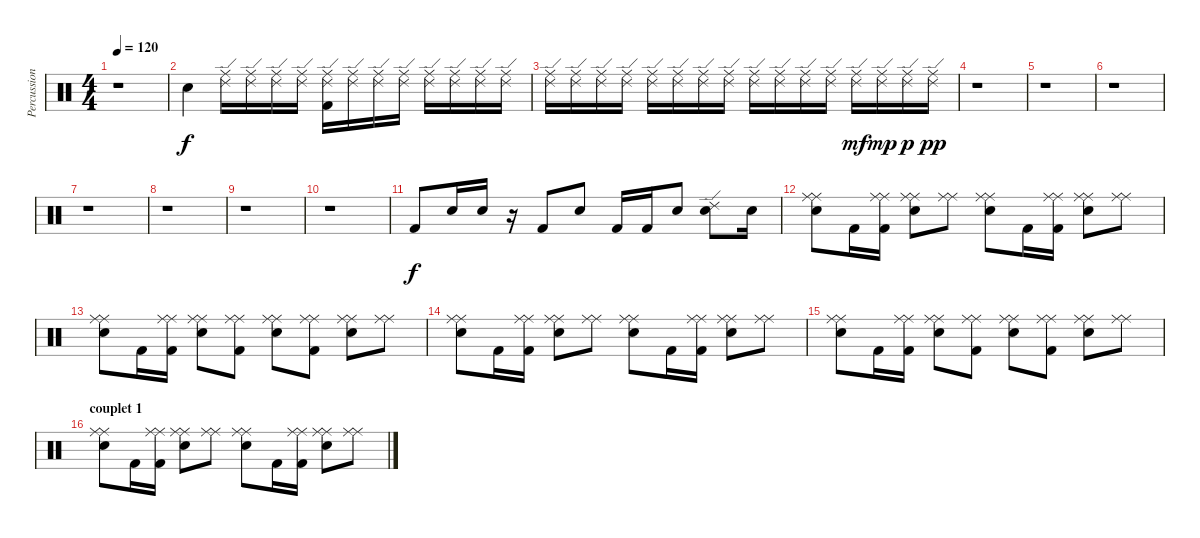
\track ("Percussions" "Percussion") {instrument percussion}
\staff {score}
\articulation defaults
\ts (4 4)
\tempo 120
\clef neutral
\ks c
r.1{dy f} |
"Electric Snare (hit)".4 ("Ride (middle)" "Ride (edge) 2").16 ("Ride (middle)" "Ride (edge) 2").16 ("Ride (middle)" "Ride (edge) 2").16 ("Ride (middle)" "Ride (edge) 2").16 ("Ride (middle)" "Ride (edge) 2" "Kick (hit) 2").16 ("Ride (middle)" "Ride (edge) 2").16 ("Ride (middle)" "Ride (edge) 2").16 ("Ride (middle)" "Ride (edge) 2").16 ("Ride (middle)" "Ride (edge) 2").16 ("Ride (middle)" "Ride (edge) 2").16 ("Ride (middle)" "Ride (edge) 2").16 ("Ride (middle)" "Ride (edge) 2").16 |
("Ride (middle)" "Ride (edge) 2").16 ("Ride (middle)" "Ride (edge) 2").16 ("Ride (middle)" "Ride (edge) 2").16 ("Ride (middle)" "Ride (edge) 2").16 ("Ride (middle)" "Ride (edge) 2").16 ("Ride (middle)" "Ride (edge) 2").16 ("Ride (middle)" "Ride (edge) 2").16 ("Ride (middle)" "Ride (edge) 2").16 ("Ride (middle)" "Ride (edge) 2").16 ("Ride (middle)" "Ride (edge) 2").16 ("Ride (middle)" "Ride (edge) 2").16 ("Ride (middle)" "Ride (edge) 2").16 ("Ride (middle)" "Ride (edge) 2").16{dy mf} ("Ride (middle)" "Ride (edge) 2").16{dy mp} ("Ride (middle)" "Ride (edge) 2").16{dy p} ("Ride (middle)" "Ride (edge) 2").16{dy pp} |
r.1 |
r.1 |
r.1 |
r.1 |
r.1 |
r.1 |
r.1 |
"Kick (hit) 2".8{dy f} "Electric Snare (hit)".16 "Electric Snare (hit)".16 r.16 "Kick (hit) 2".8 "Electric Snare (hit)".8 "Kick (hit) 2".16 "Kick (hit) 2".16 "Electric Snare (hit)".8 ("Electric Snare (hit)" "Ride (edge) 2").8 "Electric Snare (hit)".16 |
("Ride (middle)" "Ride (middle)" "Electric Snare (hit)").8 "Kick (hit) 2".16 ("Ride (middle)" "Ride (middle)" "Kick (hit) 2").16 ("Ride (middle)" "Ride (middle)" "Electric Snare (hit)").8 ("Ride (middle)" "Ride (middle)").8 ("Ride (middle)" "Ride (middle)" "Electric Snare (hit)").8 "Kick (hit) 2".16 ("Ride (middle)" "Ride (middle)" "Kick (hit) 2").16 ("Ride (middle)" "Ride (middle)" "Electric Snare (hit)").8 ("Ride (middle)" "Ride (middle)").8 |
("Ride (middle)" "Ride (middle)" "Electric Snare (hit)").8 "Kick (hit) 2".16 ("Ride (middle)" "Ride (middle)" "Kick (hit) 2").16 ("Ride (middle)" "Ride (middle)" "Electric Snare (hit)").8 ("Ride (middle)" "Ride (middle)" "Kick (hit) 2").8 ("Ride (middle)" "Ride (middle)" "Electric Snare (hit)").8 ("Ride (middle)" "Ride (middle)" "Kick (hit) 2").8 ("Ride (middle)" "Ride (middle)" "Electric Snare (hit)").8 ("Ride (middle)" "Ride (middle)").8 |
("Ride (middle)" "Ride (middle)" "Electric Snare (hit)").8 "Kick (hit) 2".16 ("Ride (middle)" "Ride (middle)" "Kick (hit) 2").16 ("Ride (middle)" "Ride (middle)" "Electric Snare (hit)").8 ("Ride (middle)" "Ride (middle)").8 ("Ride (middle)" "Ride (middle)" "Electric Snare (hit)").8 "Kick (hit) 2".16 ("Ride (middle)" "Ride (middle)" "Kick (hit) 2").16 ("Ride (middle)" "Ride (middle)" "Electric Snare (hit)").8 ("Ride (middle)" "Ride (middle)").8 |
("Ride (middle)" "Ride (middle)" "Electric Snare (hit)").8 "Kick (hit) 2".16 ("Ride (middle)" "Ride (middle)" "Kick (hit) 2").16 ("Ride (middle)" "Ride (middle)" "Electric Snare (hit)").8 ("Ride (middle)" "Ride (middle)" "Kick (hit) 2").8 ("Ride (middle)" "Ride (middle)" "Electric Snare (hit)").8 ("Ride (middle)" "Ride (middle)" "Kick (hit) 2").8 ("Ride (middle)" "Ride (middle)" "Electric Snare (hit)").8 ("Ride (middle)" "Ride (middle)").8 |
\section ("" "couplet 1")
("Ride (middle)" "Ride (middle)" "Electric Snare (hit)").8 "Kick (hit) 2".16 ("Ride (middle)" "Ride (middle)" "Kick (hit) 2").16 ("Ride (middle)" "Ride (middle)" "Electric Snare (hit)").8 ("Ride (middle)" "Ride (middle)").8 ("Ride (middle)" "Ride (middle)" "Electric Snare (hit)").8 "Kick (hit) 2".16 ("Ride (middle)" "Ride (middle)" "Kick (hit) 2").16 ("Ride (middle)" "Ride (middle)" "Electric Snare (hit)").8 ("Ride (middle)" "Ride (middle)").8
